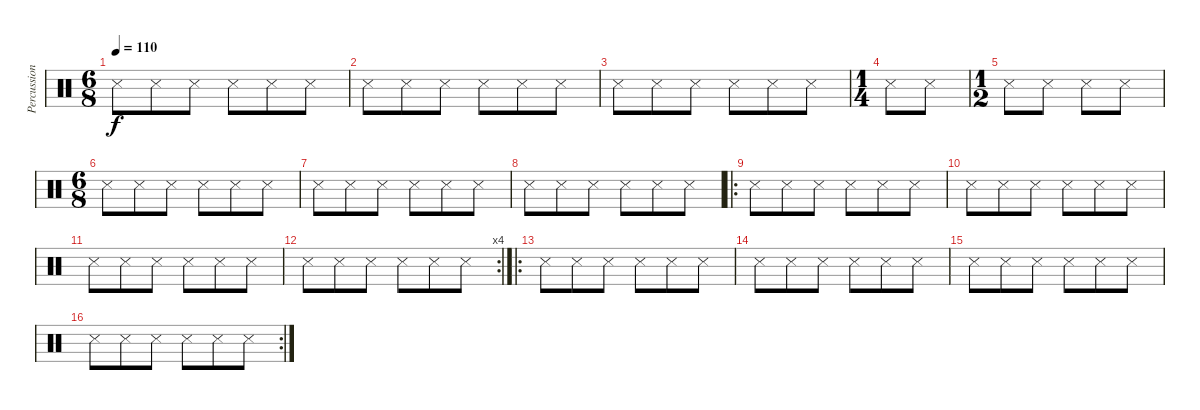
\track ("Percussion" "Percussion") {instrument percussion}
\staff {score}
\articulation defaults
\ts (6 8)
\tempo 110
\clef neutral
\ks c "Snare (side stick) 3".8{dy f} "Snare (side stick) 3".8 "Snare (side stick) 3".8 "Snare (side stick) 3".8 "Snare (side stick) 3".8 "Snare (side stick) 3".8
|
"Snare (side stick) 3".8 "Snare (side stick) 3".8 "Snare (side stick) 3".8 "Snare (side stick) 3".8 "Snare (side stick) 3".8 "Snare (side stick) 3".8 |
"Snare (side stick) 3".8 "Snare (side stick) 3".8 "Snare (side stick) 3".8 "Snare (side stick) 3".8 "Snare (side stick) 3".8 "Snare (side stick) 3".8 |
\ts (1 4)
"Snare (side stick) 3".8 "Snare (side stick) 3".8 |
\ts (1 2)
"Snare (side stick) 3".8 "Snare (side stick) 3".8 "Snare (side stick) 3".8 "Snare (side stick) 3".8 |
\ts (6 8)
"Snare (side stick) 3".8 "Snare (side stick) 3".8 "Snare (side stick) 3".8 "Snare (side stick) 3".8 "Snare (side stick) 3".8 "Snare (side stick) 3".8 |
"Snare (side stick) 3".8 "Snare (side stick) 3".8 "Snare (side stick) 3".8 "Snare (side stick) 3".8 "Snare (side stick) 3".8 "Snare (side stick) 3".8 |
"Snare (side stick) 3".8 "Snare (side stick) 3".8 "Snare (side stick) 3".8 "Snare (side stick) 3".8 "Snare (side stick) 3".8 "Snare (side stick) 3".8 |
\ro "Snare (side stick) 3".8 "Snare (side stick) 3".8 "Snare (side stick) 3".8 "Snare (side stick) 3".8 "Snare (side stick) 3".8 "Snare (side stick) 3".8
|
"Snare (side stick) 3".8 "Snare (side stick) 3".8 "Snare (side stick) 3".8 "Snare (side stick) 3".8 "Snare (side stick) 3".8 "Snare (side stick) 3".8 |
"Snare (side stick) 3".8 "Snare (side stick) 3".8 "Snare (side stick) 3".8 "Snare (side stick) 3".8 "Snare (side stick) 3".8 "Snare (side stick) 3".8 |
\rc 4 "Snare (side stick) 3".8 "Snare (side stick) 3".8 "Snare (side stick) 3".8 "Snare (side stick) 3".8 "Snare (side stick) 3".8 "Snare (side stick) 3".8
|
\ro "Snare (side stick) 3".8 "Snare (side stick) 3".8 "Snare (side stick) 3".8 "Snare (side stick) 3".8 "Snare (side stick) 3".8 "Snare (side stick) 3".8
|
"Snare (side stick) 3".8 "Snare (side stick) 3".8 "Snare (side stick) 3".8 "Snare (side stick) 3".8 "Snare (side stick) 3".8 "Snare (side stick) 3".8 |
"Snare (side stick) 3".8 "Snare (side stick) 3".8 "Snare (side stick) 3".8 "Snare (side stick) 3".8 "Snare (side stick) 3".8 "Snare (side stick) 3".8 |
\rc 2 "Snare (side stick) 3".8 "Snare (side stick) 3".8 "Snare (side stick) 3".8 "Snare (side stick) 3".8 "Snare (side stick) 3".8 "Snare (side stick) 3".8
